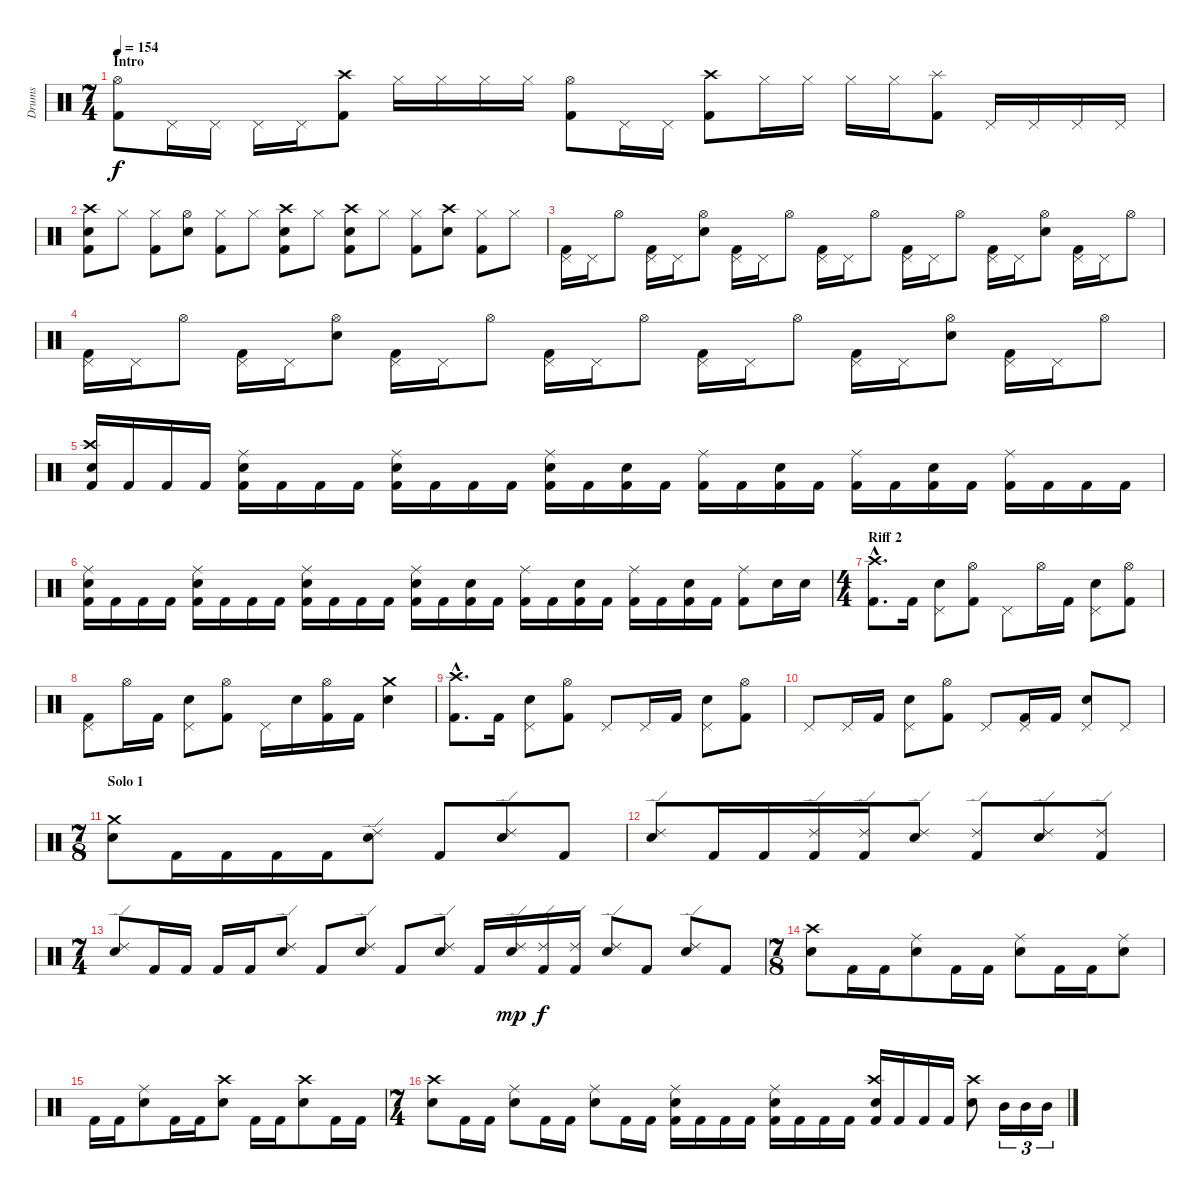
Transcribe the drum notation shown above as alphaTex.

\track ("Drums" "Drums") {instrument percussion}
\staff {score}
\articulation defaults
\ts (7 4)
\section ("" "Intro")
\tempo 154
\clef neutral
\ks c
("Hi-Hat (open)" "Kick (hit) 2").8{dy f} "Pedal Hi-Hat (hit)".16 "Pedal Hi-Hat (hit)".16 "Pedal Hi-Hat (hit)".16 "Pedal Hi-Hat (hit)".16 ("Crash high (hit)" "Kick (hit) 2").8 "Hi-Hat (closed)".16 "Hi-Hat (closed)".16 "Hi-Hat (closed)".16 "Hi-Hat (closed)".16 ("Hi-Hat (open)" "Kick (hit) 2").8 "Pedal Hi-Hat (hit)".16 "Pedal Hi-Hat (hit)".16 ("Crash high (hit)" "Kick (hit) 2").8 "Hi-Hat (closed)".16 "Hi-Hat (closed)".16 "Hi-Hat (closed)".16 "Hi-Hat (closed)".16 ("Splash (hit)" "Kick (hit) 2").8 "Pedal Hi-Hat (hit)".16 "Pedal Hi-Hat (hit)".16 "Pedal Hi-Hat (hit)".16 "Pedal Hi-Hat (hit)".16 |
("Crash high (hit)" "Snare (hit) 2" "Kick (hit) 2").8 "Hi-Hat (closed)".8 ("Hi-Hat (closed)" "Kick (hit) 2").8 ("Hi-Hat (open)" "Snare (hit) 2").8 ("Hi-Hat (closed)" "Kick (hit) 2").8 "Hi-Hat (closed)".8 ("Crash high (hit)" "Snare (hit) 2" "Kick (hit) 2").8 "Hi-Hat (closed)".8 ("Crash high (hit)" "Snare (hit) 2" "Kick (hit) 2").8 "Hi-Hat (closed)".8 ("Hi-Hat (closed)" "Kick (hit) 2").8 ("Crash high (hit)" "Snare (hit) 2").8 ("Hi-Hat (closed)" "Kick (hit) 2").8 "Hi-Hat (closed)".8 |
("Pedal Hi-Hat (hit)" "Kick (hit) 2").16 "Pedal Hi-Hat (hit)".16 "Hi-Hat (open)".8 ("Pedal Hi-Hat (hit)" "Kick (hit) 2").16 "Pedal Hi-Hat (hit)".16 ("Hi-Hat (open)" "Snare (hit) 2").8 ("Pedal Hi-Hat (hit)" "Kick (hit) 2").16 "Pedal Hi-Hat (hit)".16 "Hi-Hat (open)".8 ("Pedal Hi-Hat (hit)" "Kick (hit) 2").16 "Pedal Hi-Hat (hit)".16 "Hi-Hat (open)".8 ("Pedal Hi-Hat (hit)" "Kick (hit) 2").16 "Pedal Hi-Hat (hit)".16 "Hi-Hat (open)".8 ("Pedal Hi-Hat (hit)" "Kick (hit) 2").16 "Pedal Hi-Hat (hit)".16 ("Hi-Hat (open)" "Snare (hit) 2").8 ("Pedal Hi-Hat (hit)" "Kick (hit) 2").16 "Pedal Hi-Hat (hit)".16 "Hi-Hat (open)".8 |
("Pedal Hi-Hat (hit)" "Kick (hit) 2").16 "Pedal Hi-Hat (hit)".16 "Hi-Hat (open)".8 ("Pedal Hi-Hat (hit)" "Kick (hit) 2").16 "Pedal Hi-Hat (hit)".16 ("Hi-Hat (open)" "Snare (hit) 2").8 ("Pedal Hi-Hat (hit)" "Kick (hit) 2").16 "Pedal Hi-Hat (hit)".16 "Hi-Hat (open)".8 ("Pedal Hi-Hat (hit)" "Kick (hit) 2").16 "Pedal Hi-Hat (hit)".16 "Hi-Hat (open)".8 ("Pedal Hi-Hat (hit)" "Kick (hit) 2").16 "Pedal Hi-Hat (hit)".16 "Hi-Hat (open)".8 ("Pedal Hi-Hat (hit)" "Kick (hit) 2").16 "Pedal Hi-Hat (hit)".16 ("Hi-Hat (open)" "Snare (hit) 2").8 ("Pedal Hi-Hat (hit)" "Kick (hit) 2").16 "Pedal Hi-Hat (hit)".16 "Hi-Hat (open)".8 |
("Crash high (hit)" "Snare (hit) 2" "Kick (hit) 2").16 "Kick (hit) 2".16 "Kick (hit) 2".16 "Kick (hit) 2".16 ("Ride (middle)" "Snare (hit) 2" "Kick (hit) 2").16 "Kick (hit) 2".16 "Kick (hit) 2".16 "Kick (hit) 2".16 ("Ride (middle)" "Snare (hit) 2" "Kick (hit) 2").16 "Kick (hit) 2".16 "Kick (hit) 2".16 "Kick (hit) 2".16 ("Ride (middle)" "Snare (hit) 2" "Kick (hit) 2").16 "Kick (hit) 2".16 ("Snare (hit) 2" "Kick (hit) 2").16 "Kick (hit) 2".16 ("Ride (middle)" "Kick (hit) 2").16 "Kick (hit) 2".16 ("Snare (hit) 2" "Kick (hit) 2").16 "Kick (hit) 2".16 ("Ride (middle)" "Kick (hit) 2").16 "Kick (hit) 2".16 ("Snare (hit) 2" "Kick (hit) 2").16 "Kick (hit) 2".16 ("Ride (middle)" "Kick (hit) 2").16 "Kick (hit) 2".16 "Kick (hit) 2".16 "Kick (hit) 2".16 |
("Ride (middle)" "Snare (hit) 2" "Kick (hit) 2").16 "Kick (hit) 2".16 "Kick (hit) 2".16 "Kick (hit) 2".16 ("Ride (middle)" "Snare (hit) 2" "Kick (hit) 2").16 "Kick (hit) 2".16 "Kick (hit) 2".16 "Kick (hit) 2".16 ("Ride (middle)" "Snare (hit) 2" "Kick (hit) 2").16 "Kick (hit) 2".16 "Kick (hit) 2".16 "Kick (hit) 2".16 ("Ride (middle)" "Snare (hit) 2" "Kick (hit) 2").16 "Kick (hit) 2".16 ("Snare (hit) 2" "Kick (hit) 2").16 "Kick (hit) 2".16 ("Ride (middle)" "Kick (hit) 2").16 "Kick (hit) 2".16 ("Snare (hit) 2" "Kick (hit) 2").16 "Kick (hit) 2".16 ("Ride (middle)" "Kick (hit) 2").16 "Kick (hit) 2".16 ("Snare (hit) 2" "Kick (hit) 2").16 "Kick (hit) 2".16 ("Ride (middle)" "Kick (hit) 2").8 "Snare (hit) 2".16 "Snare (hit) 2".16 |
\ts (4 4)
\section ("" "Riff 2")
("Crash high (hit)"{hac} "Kick (hit) 2"{hac}).8{d} "Kick (hit) 2".16 ("Pedal Hi-Hat (hit)" "Snare (hit) 2").8 ("Hi-Hat (open)" "Kick (hit) 2").8 "Pedal Hi-Hat (hit)".8 "Hi-Hat (open)".16 "Kick (hit) 2".16 ("Pedal Hi-Hat (hit)" "Snare (hit) 2").8 ("Hi-Hat (open)" "Kick (hit) 2").8 |
("Pedal Hi-Hat (hit)" "Kick (hit) 2").8 "Hi-Hat (open)".16 "Kick (hit) 2".16 ("Pedal Hi-Hat (hit)" "Snare (hit) 2").8 ("Hi-Hat (open)" "Kick (hit) 2").8 "Pedal Hi-Hat (hit)".16 "Snare (hit) 2".16 ("Hi-Hat (open)" "Kick (hit) 2").16 "Kick (hit) 2".16 ("Crash medium (hit)" "Snare (hit) 2").4 |
("Crash high (hit)"{hac} "Kick (hit) 2"{hac}).8{d} "Kick (hit) 2".16 ("Pedal Hi-Hat (hit)" "Snare (hit) 2").8 ("Hi-Hat (open)" "Kick (hit) 2").8 "Pedal Hi-Hat (hit)".8 "Pedal Hi-Hat (hit)".16 "Kick (hit) 2".16 ("Pedal Hi-Hat (hit)" "Snare (hit) 2").8 ("Hi-Hat (open)" "Kick (hit) 2").8 |
"Pedal Hi-Hat (hit)".8 "Pedal Hi-Hat (hit)".16 "Kick (hit) 2".16 ("Pedal Hi-Hat (hit)" "Snare (hit) 2").8 ("Hi-Hat (open)" "Kick (hit) 2").8 "Pedal Hi-Hat (hit)".8 ("Pedal Hi-Hat (hit)" "Kick (hit) 2").16 "Kick (hit) 2".16 ("Pedal Hi-Hat (hit)" "Snare (hit) 2").8 "Pedal Hi-Hat (hit)".8 |
\ts (7 8)
\section ("" "Solo 1")
("Crash medium (hit)" "Snare (hit) 2").8 "Kick (hit) 2".16 "Kick (hit) 2".16 "Kick (hit) 2".16 "Kick (hit) 2".16 ("Ride (edge) 2" "Snare (hit) 2").8 "Kick (hit) 2".8 ("Ride (edge) 2" "Snare (hit) 2").8 "Kick (hit) 2".8 |
("Ride (edge) 2" "Snare (hit) 2").8 "Kick (hit) 2".16 "Kick (hit) 2".16 ("Ride (edge) 2" "Kick (hit) 2").16 ("Ride (edge) 2" "Kick (hit) 2").16 ("Ride (edge) 2" "Snare (hit) 2").8 ("Ride (edge) 2" "Kick (hit) 2").8 ("Ride (edge) 2" "Snare (hit) 2").8 ("Ride (edge) 2" "Kick (hit) 2").8 |
\ts (7 4)
("Ride (edge) 2" "Snare (hit) 2").8 "Kick (hit) 2".16 "Kick (hit) 2".16 "Kick (hit) 2".16 "Kick (hit) 2".16 ("Ride (edge) 2" "Snare (hit) 2").8 "Kick (hit) 2".8 ("Ride (edge) 2" "Snare (hit) 2").8 "Kick (hit) 2".8 ("Ride (edge) 2" "Snare (hit) 2").8 "Kick (hit) 2".16 ("Ride (edge) 2" "Snare (hit) 2").16{dy mp} ("Ride (edge) 2" "Kick (hit) 2").16{dy f} ("Ride (edge) 2" "Kick (hit) 2").16 ("Ride (edge) 2" "Snare (hit) 2").8 "Kick (hit) 2".8 ("Ride (edge) 2" "Snare (hit) 2").8 "Kick (hit) 2".8 |
\ts (7 8)
("Crash high (hit)" "Snare (hit) 2").8 "Kick (hit) 2".16 "Kick (hit) 2".16 ("Ride (middle)" "Snare (hit) 2").8 "Kick (hit) 2".16 "Kick (hit) 2".16 ("Ride (middle)" "Snare (hit) 2").8 "Kick (hit) 2".16 "Kick (hit) 2".16 ("Ride (middle)" "Snare (hit) 2").8 |
"Kick (hit) 2".16 "Kick (hit) 2".16 ("Ride (middle)" "Snare (hit) 2").8 "Kick (hit) 2".16 "Kick (hit) 2".16 ("Crash high (hit)" "Snare (hit) 2").8 "Kick (hit) 2".16 "Kick (hit) 2".16 ("Crash high (hit)" "Snare (hit) 2").8 "Kick (hit) 2".16 "Kick (hit) 2".16 |
\ts (7 4)
("Crash high (hit)" "Snare (hit) 2").8 "Kick (hit) 2".16 "Kick (hit) 2".16 ("Ride (middle)" "Snare (hit) 2").8 "Kick (hit) 2".16 "Kick (hit) 2".16 ("Ride (middle)" "Snare (hit) 2").8 "Kick (hit) 2".16 "Kick (hit) 2".16 ("Ride (middle)" "Snare (hit) 2" "Kick (hit) 2").16 "Kick (hit) 2".16 "Kick (hit) 2".16 "Kick (hit) 2".16 ("Ride (middle)" "Snare (hit) 2" "Kick (hit) 2").16 "Kick (hit) 2".16 "Kick (hit) 2".16 "Kick (hit) 2".16 ("Crash high (hit)" "Snare (hit) 2" "Kick (hit) 2").16 "Kick (hit) 2".16 "Kick (hit) 2".16 "Kick (hit) 2".16 ("Crash high (hit)" "Snare (hit) 2").8 "Mid Tom (hit)".16{tu (3 2)} "Mid Tom (hit)".16{tu (3 2)} "Mid Tom (hit)".16{tu (3 2)}
